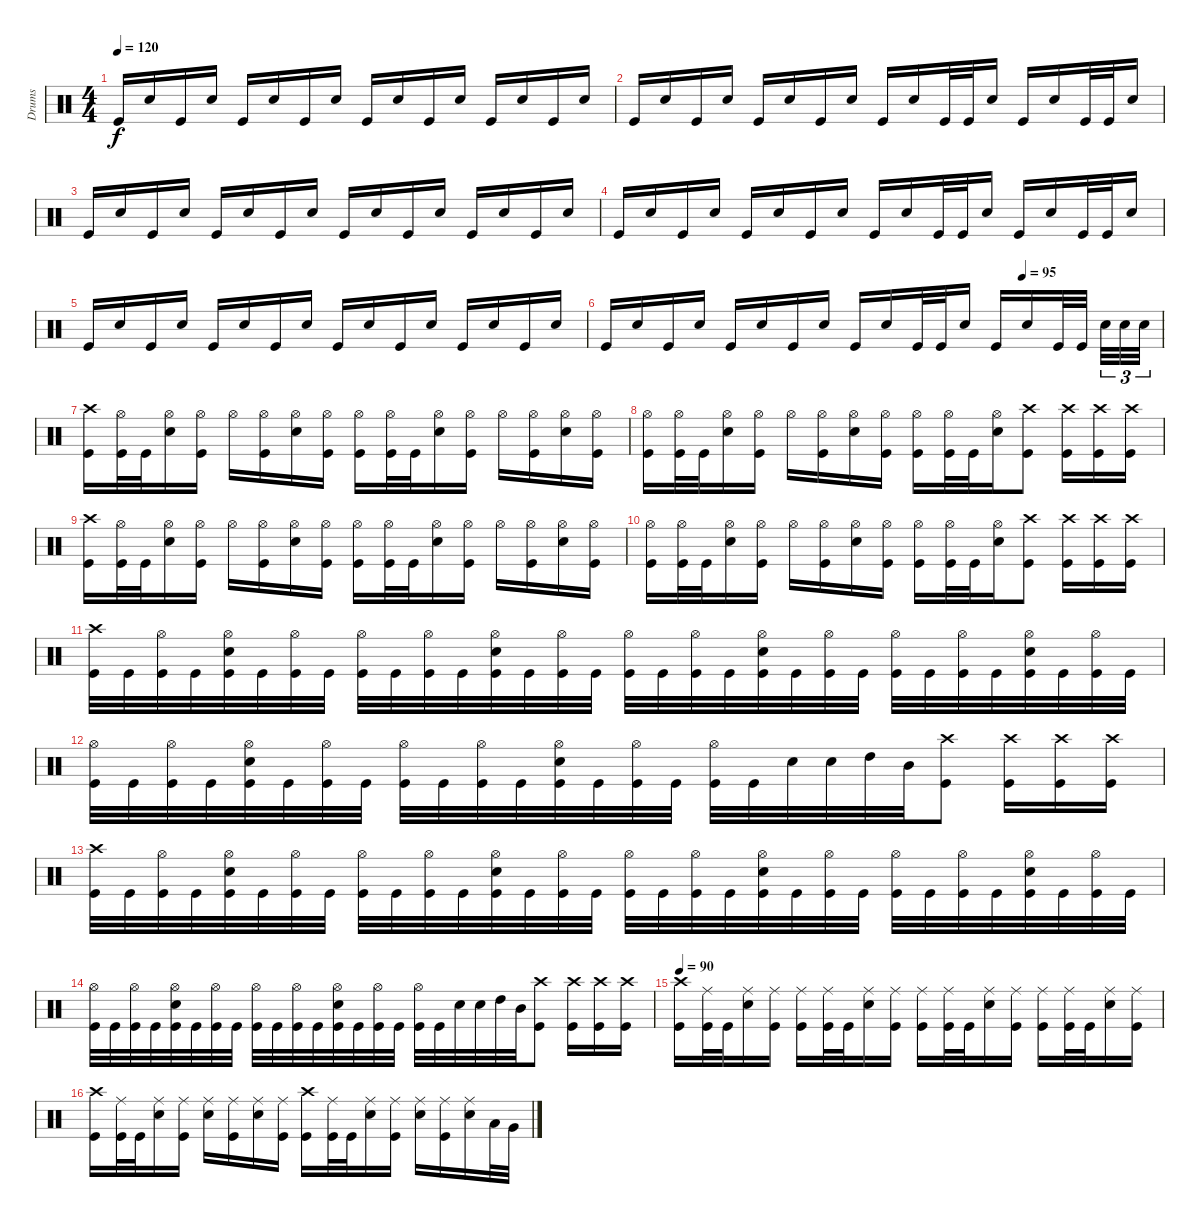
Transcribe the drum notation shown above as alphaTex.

\track ("Drums" "Drums") {instrument percussion}
\staff {score}
\articulation defaults
\ts (4 4)
\tempo 120
\clef neutral
\ks c "Kick (hit)".16{dy f} "Electric Snare (hit)".16 "Kick (hit)".16 "Electric Snare (hit)".16 "Kick (hit)".16 "Electric Snare (hit)".16 "Kick (hit)".16 "Electric Snare (hit)".16 "Kick (hit)".16 "Electric Snare (hit)".16 "Kick (hit)".16 "Electric Snare (hit)".16 "Kick (hit)".16 "Electric Snare (hit)".16 "Kick (hit)".16 "Electric Snare (hit)".16
|
"Kick (hit)".16 "Electric Snare (hit)".16 "Kick (hit)".16 "Electric Snare (hit)".16 "Kick (hit)".16 "Electric Snare (hit)".16 "Kick (hit)".16 "Electric Snare (hit)".16 "Kick (hit)".16 "Electric Snare (hit)".16 "Kick (hit)".32 "Kick (hit)".32 "Electric Snare (hit)".16 "Kick (hit)".16 "Electric Snare (hit)".16 "Kick (hit)".32 "Kick (hit)".32 "Electric Snare (hit)".16 |
"Kick (hit)".16 "Electric Snare (hit)".16 "Kick (hit)".16 "Electric Snare (hit)".16 "Kick (hit)".16 "Electric Snare (hit)".16 "Kick (hit)".16 "Electric Snare (hit)".16 "Kick (hit)".16 "Electric Snare (hit)".16 "Kick (hit)".16 "Electric Snare (hit)".16 "Kick (hit)".16 "Electric Snare (hit)".16 "Kick (hit)".16 "Electric Snare (hit)".16 |
"Kick (hit)".16 "Electric Snare (hit)".16 "Kick (hit)".16 "Electric Snare (hit)".16 "Kick (hit)".16 "Electric Snare (hit)".16 "Kick (hit)".16 "Electric Snare (hit)".16 "Kick (hit)".16 "Electric Snare (hit)".16 "Kick (hit)".32 "Kick (hit)".32 "Electric Snare (hit)".16 "Kick (hit)".16 "Electric Snare (hit)".16 "Kick (hit)".32 "Kick (hit)".32 "Electric Snare (hit)".16 |
"Kick (hit)".16 "Electric Snare (hit)".16 "Kick (hit)".16 "Electric Snare (hit)".16 "Kick (hit)".16 "Electric Snare (hit)".16 "Kick (hit)".16 "Electric Snare (hit)".16 "Kick (hit)".16 "Electric Snare (hit)".16 "Kick (hit)".16 "Electric Snare (hit)".16 "Kick (hit)".16 "Electric Snare (hit)".16 "Kick (hit)".16 "Electric Snare (hit)".16 |
\tempo (95 0.75)
"Kick (hit)".16 "Electric Snare (hit)".16 "Kick (hit)".16 "Electric Snare (hit)".16 "Kick (hit)".16 "Electric Snare (hit)".16 "Kick (hit)".16 "Electric Snare (hit)".16 "Kick (hit)".16 "Electric Snare (hit)".16 "Kick (hit)".32 "Kick (hit)".32 "Electric Snare (hit)".16 "Kick (hit)".16 "Electric Snare (hit)".16 "Kick (hit)".32 "Kick (hit)".32 "Electric Snare (hit)".32{tu (3 2)} "Electric Snare (hit)".32{tu (3 2)} "Electric Snare (hit)".32{tu (3 2)} |
("Crash high (hit)" "Kick (hit)").16 ("Hi-Hat (open)" "Kick (hit)").32 "Kick (hit)".32 ("Hi-Hat (open)" "Electric Snare (hit)").16 ("Hi-Hat (open)" "Kick (hit)").16 "Hi-Hat (open)".16 ("Hi-Hat (open)" "Kick (hit)").16 ("Hi-Hat (open)" "Electric Snare (hit)").16 ("Hi-Hat (open)" "Kick (hit)").16 ("Hi-Hat (open)" "Kick (hit)").16 ("Hi-Hat (open)" "Kick (hit)").32 "Kick (hit)".32 ("Hi-Hat (open)" "Electric Snare (hit)").16 ("Hi-Hat (open)" "Kick (hit)").16 "Hi-Hat (open)".16 ("Hi-Hat (open)" "Kick (hit)").16 ("Hi-Hat (open)" "Electric Snare (hit)").16 ("Hi-Hat (open)" "Kick (hit)").16 |
("Hi-Hat (open)" "Kick (hit)").16 ("Hi-Hat (open)" "Kick (hit)").32 "Kick (hit)".32 ("Hi-Hat (open)" "Electric Snare (hit)").16 ("Hi-Hat (open)" "Kick (hit)").16 "Hi-Hat (open)".16 ("Hi-Hat (open)" "Kick (hit)").16 ("Hi-Hat (open)" "Electric Snare (hit)").16 ("Hi-Hat (open)" "Kick (hit)").16 ("Hi-Hat (open)" "Kick (hit)").16 ("Hi-Hat (open)" "Kick (hit)").32 "Kick (hit)".32 ("Hi-Hat (open)" "Electric Snare (hit)").16 ("Crash high (hit)" "Kick (hit)").8 ("Crash high (hit)" "Kick (hit)").16 ("Crash high (hit)" "Kick (hit)").16 ("Crash high (hit)" "Kick (hit)").16 |
("Crash high (hit)" "Kick (hit)").16 ("Hi-Hat (open)" "Kick (hit)").32 "Kick (hit)".32 ("Hi-Hat (open)" "Electric Snare (hit)").16 ("Hi-Hat (open)" "Kick (hit)").16 "Hi-Hat (open)".16 ("Hi-Hat (open)" "Kick (hit)").16 ("Hi-Hat (open)" "Electric Snare (hit)").16 ("Hi-Hat (open)" "Kick (hit)").16 ("Hi-Hat (open)" "Kick (hit)").16 ("Hi-Hat (open)" "Kick (hit)").32 "Kick (hit)".32 ("Hi-Hat (open)" "Electric Snare (hit)").16 ("Hi-Hat (open)" "Kick (hit)").16 "Hi-Hat (open)".16 ("Hi-Hat (open)" "Kick (hit)").16 ("Hi-Hat (open)" "Electric Snare (hit)").16 ("Hi-Hat (open)" "Kick (hit)").16 |
("Hi-Hat (open)" "Kick (hit)").16 ("Hi-Hat (open)" "Kick (hit)").32 "Kick (hit)".32 ("Hi-Hat (open)" "Electric Snare (hit)").16 ("Hi-Hat (open)" "Kick (hit)").16 "Hi-Hat (open)".16 ("Hi-Hat (open)" "Kick (hit)").16 ("Hi-Hat (open)" "Electric Snare (hit)").16 ("Hi-Hat (open)" "Kick (hit)").16 ("Hi-Hat (open)" "Kick (hit)").16 ("Hi-Hat (open)" "Kick (hit)").32 "Kick (hit)".32 ("Hi-Hat (open)" "Electric Snare (hit)").16 ("Crash high (hit)" "Kick (hit)").8 ("Crash high (hit)" "Kick (hit)").16 ("Crash high (hit)" "Kick (hit)").16 ("Crash high (hit)" "Kick (hit)").16 |
("Crash high (hit)" "Kick (hit)").32 "Kick (hit)".32 ("Hi-Hat (open)" "Kick (hit)").32 "Kick (hit)".32 ("Hi-Hat (open)" "Electric Snare (hit)" "Kick (hit)").32 "Kick (hit)".32 ("Hi-Hat (open)" "Kick (hit)").32 "Kick (hit)".32 ("Hi-Hat (open)" "Kick (hit)").32 "Kick (hit)".32 ("Hi-Hat (open)" "Kick (hit)").32 "Kick (hit)".32 ("Hi-Hat (open)" "Electric Snare (hit)" "Kick (hit)").32 "Kick (hit)".32 ("Hi-Hat (open)" "Kick (hit)").32 "Kick (hit)".32 ("Hi-Hat (open)" "Kick (hit)").32 "Kick (hit)".32 ("Hi-Hat (open)" "Kick (hit)").32 "Kick (hit)".32 ("Hi-Hat (open)" "Electric Snare (hit)" "Kick (hit)").32 "Kick (hit)".32 ("Hi-Hat (open)" "Kick (hit)").32 "Kick (hit)".32 ("Hi-Hat (open)" "Kick (hit)").32 "Kick (hit)".32 ("Hi-Hat (open)" "Kick (hit)").32 "Kick (hit)".32 ("Hi-Hat (open)" "Electric Snare (hit)" "Kick (hit)").32 "Kick (hit)".32 ("Hi-Hat (open)" "Kick (hit)").32 "Kick (hit)".32 |
("Hi-Hat (open)" "Kick (hit)").32 "Kick (hit)".32 ("Hi-Hat (open)" "Kick (hit)").32 "Kick (hit)".32 ("Hi-Hat (open)" "Electric Snare (hit)" "Kick (hit)").32 "Kick (hit)".32 ("Hi-Hat (open)" "Kick (hit)").32 "Kick (hit)".32 ("Hi-Hat (open)" "Kick (hit)").32 "Kick (hit)".32 ("Hi-Hat (open)" "Kick (hit)").32 "Kick (hit)".32 ("Hi-Hat (open)" "Electric Snare (hit)" "Kick (hit)").32 "Kick (hit)".32 ("Hi-Hat (open)" "Kick (hit)").32 "Kick (hit)".32 ("Hi-Hat (open)" "Kick (hit)").32 "Kick (hit)".32 "Electric Snare (hit)".32 "Electric Snare (hit)".32 "High Tom (hit)".32 "Mid Tom (hit)".32 ("Crash high (hit)" "Kick (hit)").8 ("Crash high (hit)" "Kick (hit)").16 ("Crash high (hit)" "Kick (hit)").16 ("Crash high (hit)" "Kick (hit)").16 |
("Crash high (hit)" "Kick (hit)").32 "Kick (hit)".32 ("Hi-Hat (open)" "Kick (hit)").32 "Kick (hit)".32 ("Hi-Hat (open)" "Electric Snare (hit)" "Kick (hit)").32 "Kick (hit)".32 ("Hi-Hat (open)" "Kick (hit)").32 "Kick (hit)".32 ("Hi-Hat (open)" "Kick (hit)").32 "Kick (hit)".32 ("Hi-Hat (open)" "Kick (hit)").32 "Kick (hit)".32 ("Hi-Hat (open)" "Electric Snare (hit)" "Kick (hit)").32 "Kick (hit)".32 ("Hi-Hat (open)" "Kick (hit)").32 "Kick (hit)".32 ("Hi-Hat (open)" "Kick (hit)").32 "Kick (hit)".32 ("Hi-Hat (open)" "Kick (hit)").32 "Kick (hit)".32 ("Hi-Hat (open)" "Electric Snare (hit)" "Kick (hit)").32 "Kick (hit)".32 ("Hi-Hat (open)" "Kick (hit)").32 "Kick (hit)".32 ("Hi-Hat (open)" "Kick (hit)").32 "Kick (hit)".32 ("Hi-Hat (open)" "Kick (hit)").32 "Kick (hit)".32 ("Hi-Hat (open)" "Electric Snare (hit)" "Kick (hit)").32 "Kick (hit)".32 ("Hi-Hat (open)" "Kick (hit)").32 "Kick (hit)".32 |
("Hi-Hat (open)" "Kick (hit)").32 "Kick (hit)".32 ("Hi-Hat (open)" "Kick (hit)").32 "Kick (hit)".32 ("Hi-Hat (open)" "Electric Snare (hit)" "Kick (hit)").32 "Kick (hit)".32 ("Hi-Hat (open)" "Kick (hit)").32 "Kick (hit)".32 ("Hi-Hat (open)" "Kick (hit)").32 "Kick (hit)".32 ("Hi-Hat (open)" "Kick (hit)").32 "Kick (hit)".32 ("Hi-Hat (open)" "Electric Snare (hit)" "Kick (hit)").32 "Kick (hit)".32 ("Hi-Hat (open)" "Kick (hit)").32 "Kick (hit)".32 ("Hi-Hat (open)" "Kick (hit)").32 "Kick (hit)".32 "Electric Snare (hit)".32 "Electric Snare (hit)".32 "High Tom (hit)".32 "Mid Tom (hit)".32 ("Crash high (hit)" "Kick (hit)").8 ("Crash high (hit)" "Kick (hit)").16 ("Crash high (hit)" "Kick (hit)").16 ("Crash high (hit)" "Kick (hit)").16 |
\tempo 90
("Crash high (hit)" "Kick (hit)").16 ("Ride (middle)" "Kick (hit)").32 "Kick (hit)".32 ("Ride (middle)" "Electric Snare (hit)").16 ("Ride (middle)" "Kick (hit)").16 ("Ride (middle)" "Kick (hit)").16 ("Ride (middle)" "Kick (hit)").32 "Kick (hit)".32 ("Ride (middle)" "Electric Snare (hit)").16 ("Ride (middle)" "Kick (hit)").16 ("Ride (middle)" "Kick (hit)").16 ("Ride (middle)" "Kick (hit)").32 "Kick (hit)".32 ("Ride (middle)" "Electric Snare (hit)").16 ("Ride (middle)" "Kick (hit)").16 ("Ride (middle)" "Kick (hit)").16 ("Ride (middle)" "Kick (hit)").32 "Kick (hit)".32 ("Ride (middle)" "Electric Snare (hit)").16 ("Ride (middle)" "Kick (hit)").16 |
("Crash high (hit)" "Kick (hit)").16 ("Ride (middle)" "Kick (hit)").32 "Kick (hit)".32 ("Ride (middle)" "Electric Snare (hit)").16 ("Ride (middle)" "Kick (hit)").16 ("Ride (middle)" "Electric Snare (hit)").16 ("Ride (middle)" "Kick (hit)").16 ("Ride (middle)" "Electric Snare (hit)").16 ("Ride (middle)" "Kick (hit)").16 ("Crash high (hit)" "Kick (hit)").16 ("Ride (middle)" "Kick (hit)").32 "Kick (hit)".32 ("Ride (middle)" "Electric Snare (hit)").16 ("Ride (middle)" "Kick (hit)").16 ("Ride (middle)" "Electric Snare (hit)").16 ("Ride (middle)" "Kick (hit)").16 ("Ride (middle)" "Electric Snare (hit)").16 "Low Tom (hit)".32 "Very Low Tom (hit)".32
